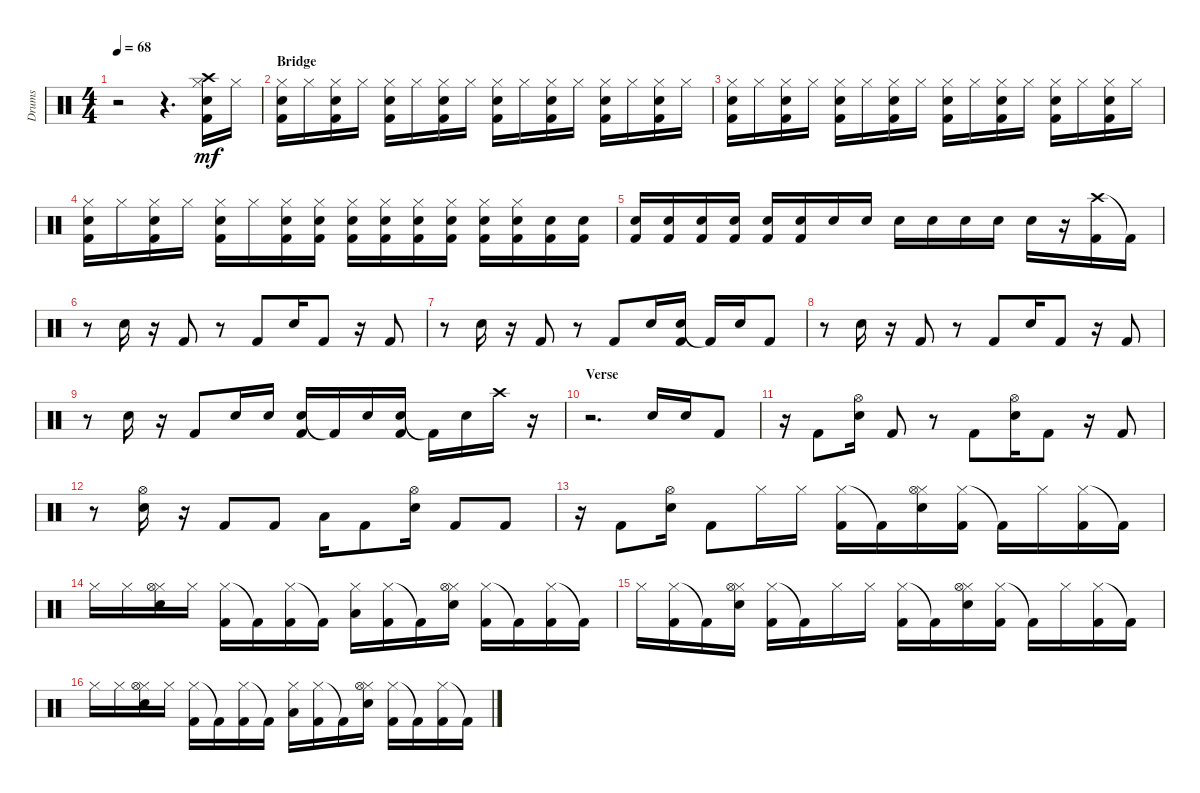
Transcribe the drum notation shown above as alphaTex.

\track ("Drums" "Drums") {instrument percussion}
\staff {score}
\articulation defaults
\ts (4 4)
\tempo 68
\clef neutral
\ks aminor
r.2{dy mf} r.4{d} ("Kick (hit) 2" "Hand Clap (hit)" "Hi-Hat (closed)" "Crash high (hit)").16 "Hi-Hat (closed)".16 |
\section ("" "Bridge")
("Kick (hit) 2" "Hand Clap (hit)" "Hi-Hat (closed)").16 "Hi-Hat (closed)".16 ("Kick (hit) 2" "Hand Clap (hit)" "Hi-Hat (closed)").16 "Hi-Hat (closed)".16 ("Kick (hit) 2" "Hand Clap (hit)" "Hi-Hat (closed)").16 "Hi-Hat (closed)".16 ("Kick (hit) 2" "Hand Clap (hit)" "Hi-Hat (closed)").16 "Hi-Hat (closed)".16 ("Kick (hit) 2" "Hand Clap (hit)" "Hi-Hat (closed)").16 "Hi-Hat (closed)".16 ("Kick (hit) 2" "Hand Clap (hit)" "Hi-Hat (closed)").16 "Hi-Hat (closed)".16 ("Kick (hit) 2" "Hand Clap (hit)" "Hi-Hat (closed)").16 "Hi-Hat (closed)".16 ("Kick (hit) 2" "Hand Clap (hit)" "Hi-Hat (closed)").16 "Hi-Hat (closed)".16 |
("Kick (hit) 2" "Hand Clap (hit)" "Hi-Hat (closed)").16 "Hi-Hat (closed)".16 ("Kick (hit) 2" "Hand Clap (hit)" "Hi-Hat (closed)").16 "Hi-Hat (closed)".16 ("Kick (hit) 2" "Hand Clap (hit)" "Hi-Hat (closed)").16 "Hi-Hat (closed)".16 ("Kick (hit) 2" "Hand Clap (hit)" "Hi-Hat (closed)").16 "Hi-Hat (closed)".16 ("Kick (hit) 2" "Hand Clap (hit)" "Hi-Hat (closed)").16 "Hi-Hat (closed)".16 ("Kick (hit) 2" "Hand Clap (hit)" "Hi-Hat (closed)").16 "Hi-Hat (closed)".16 ("Kick (hit) 2" "Hand Clap (hit)" "Hi-Hat (closed)").16 "Hi-Hat (closed)".16 ("Kick (hit) 2" "Hand Clap (hit)" "Hi-Hat (closed)").16 "Hi-Hat (closed)".16 |
("Kick (hit) 2" "Hand Clap (hit)" "Hi-Hat (closed)").16 "Hi-Hat (closed)".16 ("Kick (hit) 2" "Hand Clap (hit)" "Hi-Hat (closed)").16 "Hi-Hat (closed)".16 ("Kick (hit) 2" "Hand Clap (hit)" "Hi-Hat (closed)").16 "Hi-Hat (closed)".16 ("Kick (hit) 2" "Hand Clap (hit)" "Hi-Hat (closed)").16 ("Kick (hit) 2" "Hand Clap (hit)" "Hi-Hat (closed)").16 ("Kick (hit) 2" "Hand Clap (hit)" "Hi-Hat (closed)").16 ("Kick (hit) 2" "Hand Clap (hit)" "Hi-Hat (closed)").16 ("Kick (hit) 2" "Hand Clap (hit)" "Hi-Hat (closed)").16 ("Kick (hit) 2" "Hand Clap (hit)" "Hi-Hat (closed)").16 ("Kick (hit) 2" "Hand Clap (hit)" "Hi-Hat (closed)").16 ("Kick (hit) 2" "Hand Clap (hit)" "Hi-Hat (closed)").16 ("Kick (hit) 2" "Hand Clap (hit)").16 ("Kick (hit) 2" "Hand Clap (hit)").16 |
("Kick (hit) 2" "Hand Clap (hit)").16 ("Kick (hit) 2" "Hand Clap (hit)").16 ("Kick (hit) 2" "Hand Clap (hit)").16 ("Kick (hit) 2" "Hand Clap (hit)").16 ("Kick (hit) 2" "Hand Clap (hit)").16 ("Kick (hit) 2" "Hand Clap (hit)").16 "Electric Snare (hit)".16 "Electric Snare (hit)".16 "Electric Snare (hit)".16 "Electric Snare (hit)".16 "Electric Snare (hit)".16 "Electric Snare (hit)".16 "Electric Snare (hit)".16 r.16 ("Crash high (hit)" "Kick (hit) 2").16 "Kick (hit) 2"{t}.16 |
r.8 "Electric Snare (hit)".16 r.16 "Kick (hit) 2".8 r.8 "Kick (hit) 2".8 "Electric Snare (hit)".16 "Kick (hit) 2".8 r.16 "Kick (hit) 2".8 |
r.8 "Electric Snare (hit)".16 r.16 "Kick (hit) 2".8 r.8 "Kick (hit) 2".8 "Electric Snare (hit)".16 ("Electric Snare (hit)" "Kick (hit) 2").16 "Kick (hit) 2"{t}.16 "Electric Snare (hit)".16 "Kick (hit) 2".8 |
r.8 "Electric Snare (hit)".16 r.16 "Kick (hit) 2".8 r.8 "Kick (hit) 2".8 "Electric Snare (hit)".16 "Kick (hit) 2".8 r.16 "Kick (hit) 2".8 |
r.8 "Electric Snare (hit)".16 r.16 "Kick (hit) 2".8 "Electric Snare (hit)".16 "Electric Snare (hit)".16 ("Electric Snare (hit)" "Kick (hit) 2").16 "Kick (hit) 2"{t}.16 "Electric Snare (hit)".16 ("Electric Snare (hit)" "Kick (hit) 2").16 "Kick (hit) 2"{t}.16 "Electric Snare (hit)".16 "Crash high (hit)".16 r.16 |
\section ("" "Verse")
r.2{d} "Electric Snare (hit)".16 "Electric Snare (hit)".16 "Kick (hit) 2".8 |
r.16 "Kick (hit) 2".8 ("Electric Snare (hit)" "Hi-Hat (open)").16 "Kick (hit) 2".8 r.8 "Kick (hit) 2".8 ("Electric Snare (hit)" "Hi-Hat (open)").16 "Kick (hit) 2".8 r.16 "Kick (hit) 2".8 |
r.8 ("Electric Snare (hit)" "Hi-Hat (open)").16 r.16 "Kick (hit) 2".8 "Kick (hit) 2".8 "Low Floor Tom (hit)".16 "Kick (hit) 2".8 ("Electric Snare (hit)" "Hi-Hat (open)").16 "Kick (hit) 2".8 "Kick (hit) 2".8 |
r.16 "Kick (hit) 2".8 ("Electric Snare (hit)" "Hi-Hat (open)").16 "Kick (hit) 2".8 "Hi-Hat (closed)".16 "Hi-Hat (closed)".16 ("Hi-Hat (closed)" "Kick (hit) 2").16 "Kick (hit) 2"{t}.16 ("Hi-Hat (closed)" "Electric Snare (hit)" "Hi-Hat (open)").16 ("Hi-Hat (closed)" "Kick (hit) 2").16 "Kick (hit) 2"{t}.16 "Hi-Hat (closed)".16 ("Hi-Hat (closed)" "Kick (hit) 2").16 "Kick (hit) 2"{t}.16 |
"Hi-Hat (closed)".16 "Hi-Hat (closed)".16 ("Electric Snare (hit)" "Hi-Hat (closed)" "Hi-Hat (open)").16 "Hi-Hat (closed)".16 ("Hi-Hat (closed)" "Kick (hit) 2").16 "Kick (hit) 2"{t}.16 ("Hi-Hat (closed)" "Kick (hit) 2").16 "Kick (hit) 2"{t}.16 ("Hi-Hat (closed)" "Low Floor Tom (hit)").16 ("Hi-Hat (closed)" "Kick (hit) 2").16 "Kick (hit) 2"{t}.16 ("Electric Snare (hit)" "Hi-Hat (closed)" "Hi-Hat (open)").16 ("Hi-Hat (closed)" "Kick (hit) 2").16 "Kick (hit) 2"{t}.16 ("Hi-Hat (closed)" "Kick (hit) 2").16 "Kick (hit) 2"{t}.16 |
"Hi-Hat (closed)".16 ("Hi-Hat (closed)" "Kick (hit) 2").16 "Kick (hit) 2"{t}.16 ("Electric Snare (hit)" "Hi-Hat (closed)" "Hi-Hat (open)").16 ("Hi-Hat (closed)" "Kick (hit) 2").16 "Kick (hit) 2"{t}.16 "Hi-Hat (closed)".16 "Hi-Hat (closed)".16 ("Hi-Hat (closed)" "Kick (hit) 2").16 "Kick (hit) 2"{t}.16 ("Hi-Hat (closed)" "Electric Snare (hit)" "Hi-Hat (open)").16 ("Hi-Hat (closed)" "Kick (hit) 2").16 "Kick (hit) 2"{t}.16 "Hi-Hat (closed)".16 ("Hi-Hat (closed)" "Kick (hit) 2").16 "Kick (hit) 2"{t}.16 |
"Hi-Hat (closed)".16 "Hi-Hat (closed)".16 ("Electric Snare (hit)" "Hi-Hat (closed)" "Hi-Hat (open)").16 "Hi-Hat (closed)".16 ("Hi-Hat (closed)" "Kick (hit) 2").16 "Kick (hit) 2"{t}.16 ("Hi-Hat (closed)" "Kick (hit) 2").16 "Kick (hit) 2"{t}.16 ("Hi-Hat (closed)" "Low Floor Tom (hit)").16 ("Hi-Hat (closed)" "Kick (hit) 2").16 "Kick (hit) 2"{t}.16 ("Electric Snare (hit)" "Hi-Hat (closed)" "Hi-Hat (open)").16 ("Hi-Hat (closed)" "Kick (hit) 2").16 "Kick (hit) 2"{t}.16 ("Hi-Hat (closed)" "Kick (hit) 2").16 "Kick (hit) 2"{t}.16
